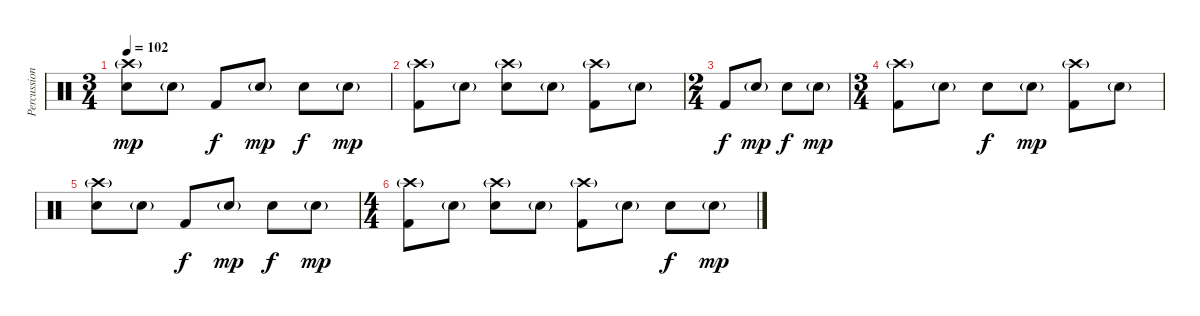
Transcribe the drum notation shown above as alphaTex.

\track ("Percussion" "Percussion") {instrument percussion}
\staff {score}
\articulation defaults
\ts (3 4)
\tempo 102
\clef neutral
\ks c
("Crash high (hit)"{g} "Snare (hit) 2").8{dy mp} "Hand Clap (hit)"{g}.8 "Kick (hit) 2".8{dy f} "Hand Clap (hit)"{g}.8{dy mp} "Snare (hit) 2".8{dy f} "Hand Clap (hit)"{g}.8{dy mp} |
("Crash high (hit)"{g} "Kick (hit) 2").8 "Hand Clap (hit)"{g}.8 ("Crash high (hit)"{g} "Snare (hit) 2").8 "Hand Clap (hit)"{g}.8 ("Crash high (hit)"{g} "Kick (hit) 2").8 "Hand Clap (hit)"{g}.8 |
\ts (2 4)
"Kick (hit) 2".8{dy f} "Hand Clap (hit)"{g}.8{dy mp} "Snare (hit) 2".8{dy f} "Hand Clap (hit)"{g}.8{dy mp} |
\ts (3 4)
("Crash high (hit)"{g} "Kick (hit) 2").8 "Hand Clap (hit)"{g}.8 "Snare (hit) 2".8{dy f} "Hand Clap (hit)"{g}.8{dy mp} ("Crash high (hit)"{g} "Kick (hit) 2").8 "Hand Clap (hit)"{g}.8 |
("Crash high (hit)"{g} "Snare (hit) 2").8 "Hand Clap (hit)"{g}.8 "Kick (hit) 2".8{dy f} "Hand Clap (hit)"{g}.8{dy mp} "Snare (hit) 2".8{dy f} "Hand Clap (hit)"{g}.8{dy mp} |
\ts (4 4)
("Crash high (hit)"{g} "Kick (hit) 2").8 "Hand Clap (hit)"{g}.8 ("Crash high (hit)"{g} "Snare (hit) 2").8 "Hand Clap (hit)"{g}.8 ("Crash high (hit)"{g} "Kick (hit) 2").8 "Hand Clap (hit)"{g}.8 "Snare (hit) 2".8{dy f} "Hand Clap (hit)"{g}.8{dy mp}
